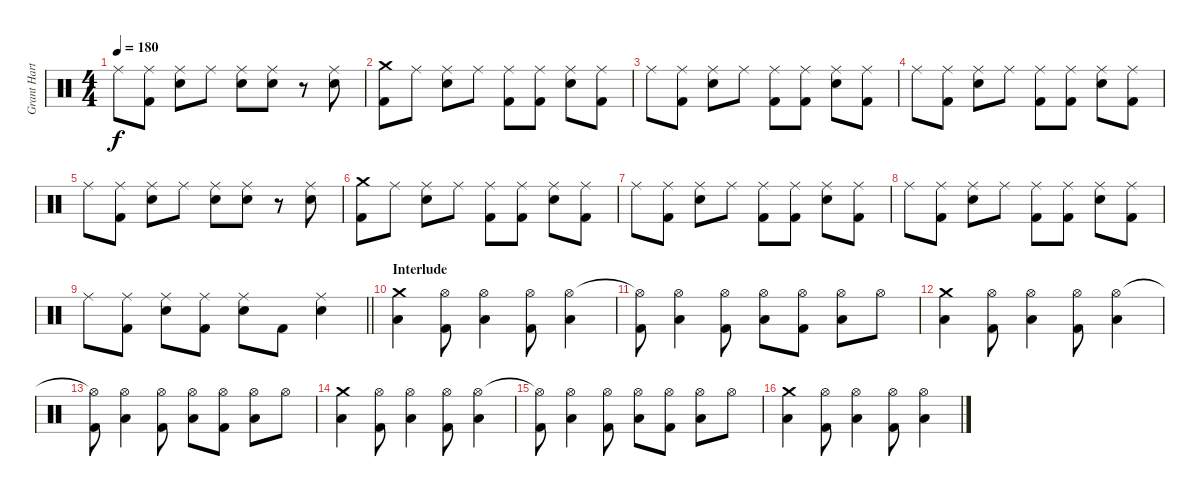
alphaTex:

\track ("Grant Hart - Drums" "Grant Hart") {instrument percussion}
\staff {score}
\articulation defaults
\ts (4 4)
\tempo 180
\clef neutral
\ks c "Ride (middle)".8{dy f}
("Ride (middle)" "Kick (hit) 2").8 ("Ride (middle)" "Electric Snare (hit)").8 "Ride (middle)".8 ("Ride (middle)" "Electric Snare (hit)").8 ("Ride (middle)" "Electric Snare (hit)").8 r.8 ("Ride (middle)" "Electric Snare (hit)").8 |
("Crash medium (hit)" "Kick (hit) 2").8 "Ride (middle)".8 ("Ride (middle)" "Electric Snare (hit)").8 "Ride (middle)".8 ("Ride (middle)" "Kick (hit) 2").8 ("Ride (middle)" "Kick (hit) 2").8 ("Ride (middle)" "Electric Snare (hit)").8 ("Ride (middle)" "Kick (hit) 2").8 |
"Ride (middle)".8 ("Ride (middle)" "Kick (hit) 2").8 ("Ride (middle)" "Electric Snare (hit)").8 "Ride (middle)".8 ("Ride (middle)" "Kick (hit) 2").8 ("Ride (middle)" "Kick (hit) 2").8 ("Ride (middle)" "Electric Snare (hit)").8 ("Ride (middle)" "Kick (hit) 2").8 |
"Ride (middle)".8 ("Ride (middle)" "Kick (hit) 2").8 ("Ride (middle)" "Electric Snare (hit)").8 "Ride (middle)".8 ("Ride (middle)" "Kick (hit) 2").8 ("Ride (middle)" "Kick (hit) 2").8 ("Ride (middle)" "Electric Snare (hit)").8 ("Ride (middle)" "Kick (hit) 2").8 |
"Ride (middle)".8 ("Ride (middle)" "Kick (hit) 2").8 ("Ride (middle)" "Electric Snare (hit)").8 "Ride (middle)".8 ("Ride (middle)" "Electric Snare (hit)").8 ("Ride (middle)" "Electric Snare (hit)").8 r.8 ("Ride (middle)" "Electric Snare (hit)").8 |
("Crash medium (hit)" "Kick (hit) 2").8 "Ride (middle)".8 ("Ride (middle)" "Electric Snare (hit)").8 "Ride (middle)".8 ("Ride (middle)" "Kick (hit) 2").8 ("Ride (middle)" "Kick (hit) 2").8 ("Ride (middle)" "Electric Snare (hit)").8 ("Ride (middle)" "Kick (hit) 2").8 |
"Ride (middle)".8 ("Ride (middle)" "Kick (hit) 2").8 ("Ride (middle)" "Electric Snare (hit)").8 "Ride (middle)".8 ("Ride (middle)" "Kick (hit) 2").8 ("Ride (middle)" "Kick (hit) 2").8 ("Ride (middle)" "Electric Snare (hit)").8 ("Ride (middle)" "Kick (hit) 2").8 |
"Ride (middle)".8 ("Ride (middle)" "Kick (hit) 2").8 ("Ride (middle)" "Electric Snare (hit)").8 "Ride (middle)".8 ("Ride (middle)" "Kick (hit) 2").8 ("Ride (middle)" "Kick (hit) 2").8 ("Ride (middle)" "Electric Snare (hit)").8 ("Ride (middle)" "Kick (hit) 2").8 |
\barLineRight lightlight "Ride (middle)".8
("Ride (middle)" "Kick (hit) 2").8 ("Ride (middle)" "Electric Snare (hit)").8 ("Ride (middle)" "Kick (hit) 2").8 ("Ride (middle)" "Electric Snare (hit)").8 "Kick (hit) 2".8 ("Ride (middle)" "Electric Snare (hit)").4 |
\section ("" "Interlude")
("Crash medium (hit)" "Low Floor Tom (hit)").4 ("Hi-Hat (open)" "Kick (hit) 2").8 ("Hi-Hat (open)" "Low Floor Tom (hit)").4 ("Hi-Hat (open)" "Kick (hit) 2").8 ("Hi-Hat (open)" "Low Floor Tom (hit)").4 |
("Hi-Hat (open)"{t} "Kick (hit) 2").8 ("Hi-Hat (open)" "Low Floor Tom (hit)").4 ("Hi-Hat (open)" "Kick (hit) 2").8 ("Hi-Hat (open)" "Low Floor Tom (hit)").8 ("Hi-Hat (open)" "Kick (hit) 2").8 ("Hi-Hat (open)" "Low Floor Tom (hit)").8 "Hi-Hat (open)".8 |
("Crash medium (hit)" "Low Floor Tom (hit)").4 ("Hi-Hat (open)" "Kick (hit) 2").8 ("Hi-Hat (open)" "Low Floor Tom (hit)").4 ("Hi-Hat (open)" "Kick (hit) 2").8 ("Hi-Hat (open)" "Low Floor Tom (hit)").4 |
("Hi-Hat (open)"{t} "Kick (hit) 2").8 ("Hi-Hat (open)" "Low Floor Tom (hit)").4 ("Hi-Hat (open)" "Kick (hit) 2").8 ("Hi-Hat (open)" "Low Floor Tom (hit)").8 ("Hi-Hat (open)" "Kick (hit) 2").8 ("Hi-Hat (open)" "Low Floor Tom (hit)").8 "Hi-Hat (open)".8 |
("Crash medium (hit)" "Low Floor Tom (hit)").4 ("Hi-Hat (open)" "Kick (hit) 2").8 ("Hi-Hat (open)" "Low Floor Tom (hit)").4 ("Hi-Hat (open)" "Kick (hit) 2").8 ("Hi-Hat (open)" "Low Floor Tom (hit)").4 |
("Hi-Hat (open)"{t} "Kick (hit) 2").8 ("Hi-Hat (open)" "Low Floor Tom (hit)").4 ("Hi-Hat (open)" "Kick (hit) 2").8 ("Hi-Hat (open)" "Low Floor Tom (hit)").8 ("Hi-Hat (open)" "Kick (hit) 2").8 ("Hi-Hat (open)" "Low Floor Tom (hit)").8 "Hi-Hat (open)".8 |
("Crash medium (hit)" "Low Floor Tom (hit)").4 ("Hi-Hat (open)" "Kick (hit) 2").8 ("Hi-Hat (open)" "Low Floor Tom (hit)").4 ("Hi-Hat (open)" "Kick (hit) 2").8 ("Hi-Hat (open)" "Low Floor Tom (hit)").4
